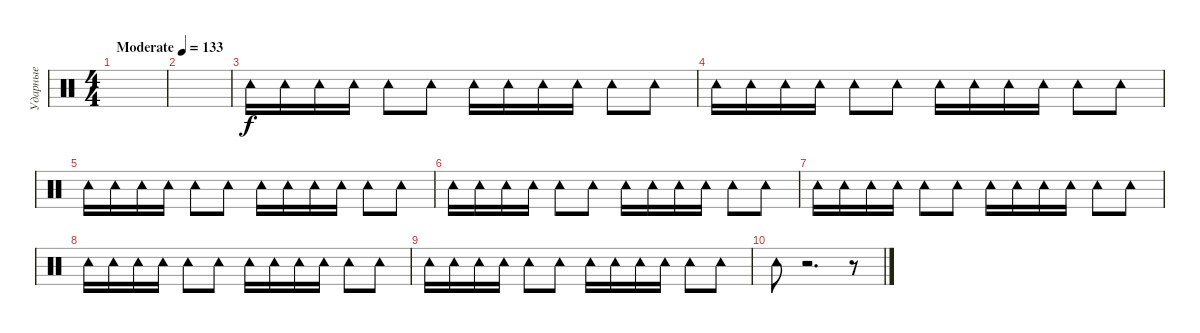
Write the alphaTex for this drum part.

\track ("Ударные" "Ударные") {instrument percussion}
\staff {score}
\articulation defaults
\ts (4 4)
\tempo (133 "Moderate")
\clef neutral
\ks c
|
|
"Tambourine (hit)".16 "Tambourine (hit)".16 "Tambourine (hit)".16 "Tambourine (hit)".16 "Tambourine (hit)".8 "Tambourine (hit)".8 "Tambourine (hit)".16 "Tambourine (hit)".16 "Tambourine (hit)".16 "Tambourine (hit)".16 "Tambourine (hit)".8 "Tambourine (hit)".8 |
"Tambourine (hit)".16 "Tambourine (hit)".16 "Tambourine (hit)".16 "Tambourine (hit)".16 "Tambourine (hit)".8 "Tambourine (hit)".8 "Tambourine (hit)".16 "Tambourine (hit)".16 "Tambourine (hit)".16 "Tambourine (hit)".16 "Tambourine (hit)".8 "Tambourine (hit)".8 |
"Tambourine (hit)".16 "Tambourine (hit)".16 "Tambourine (hit)".16 "Tambourine (hit)".16 "Tambourine (hit)".8 "Tambourine (hit)".8 "Tambourine (hit)".16 "Tambourine (hit)".16 "Tambourine (hit)".16 "Tambourine (hit)".16 "Tambourine (hit)".8 "Tambourine (hit)".8 |
"Tambourine (hit)".16 "Tambourine (hit)".16 "Tambourine (hit)".16 "Tambourine (hit)".16 "Tambourine (hit)".8 "Tambourine (hit)".8 "Tambourine (hit)".16 "Tambourine (hit)".16 "Tambourine (hit)".16 "Tambourine (hit)".16 "Tambourine (hit)".8 "Tambourine (hit)".8 |
"Tambourine (hit)".16 "Tambourine (hit)".16 "Tambourine (hit)".16 "Tambourine (hit)".16 "Tambourine (hit)".8 "Tambourine (hit)".8 "Tambourine (hit)".16 "Tambourine (hit)".16 "Tambourine (hit)".16 "Tambourine (hit)".16 "Tambourine (hit)".8 "Tambourine (hit)".8 |
"Tambourine (hit)".16 "Tambourine (hit)".16 "Tambourine (hit)".16 "Tambourine (hit)".16 "Tambourine (hit)".8 "Tambourine (hit)".8 "Tambourine (hit)".16 "Tambourine (hit)".16 "Tambourine (hit)".16 "Tambourine (hit)".16 "Tambourine (hit)".8 "Tambourine (hit)".8 |
"Tambourine (hit)".16 "Tambourine (hit)".16 "Tambourine (hit)".16 "Tambourine (hit)".16 "Tambourine (hit)".8 "Tambourine (hit)".8 "Tambourine (hit)".16 "Tambourine (hit)".16 "Tambourine (hit)".16 "Tambourine (hit)".16 "Tambourine (hit)".8 "Tambourine (hit)".8 |
"Tambourine (hit)".8 r.2{d} r.8
